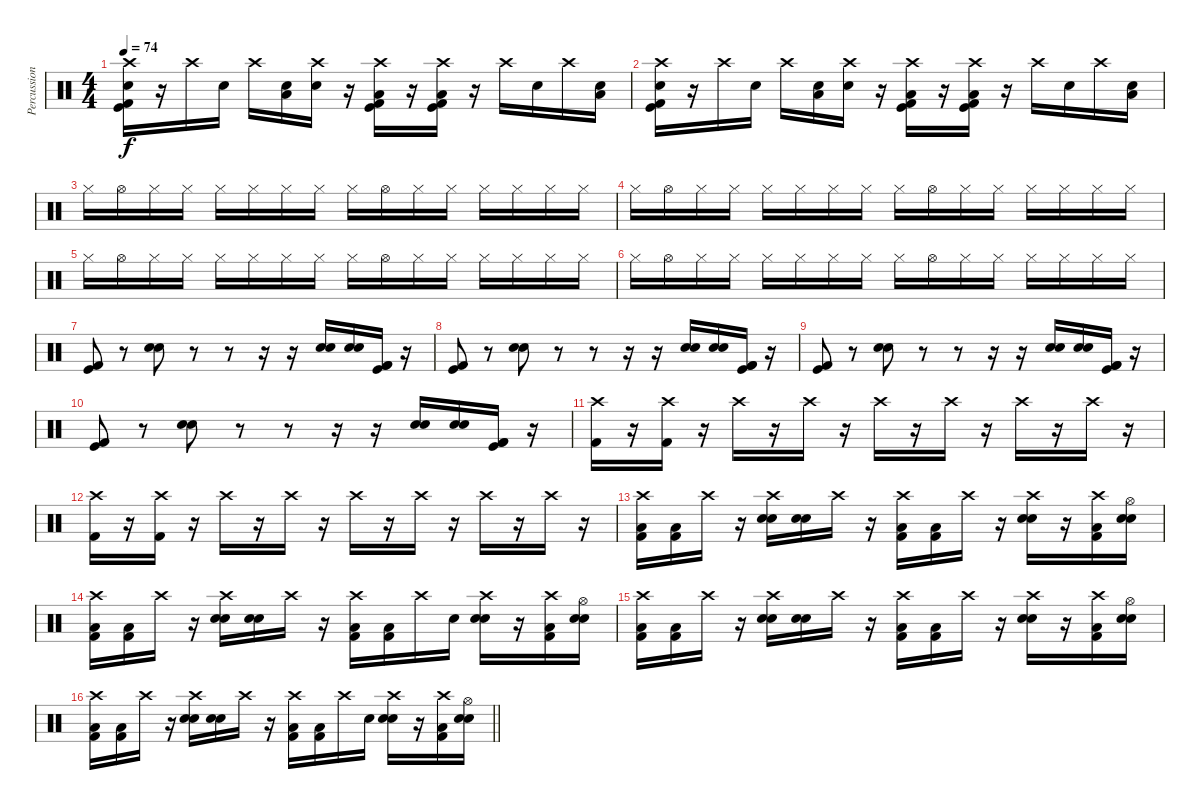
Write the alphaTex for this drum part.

\track ("Percussions" "Percussion") {instrument percussion}
\staff {score}
\articulation defaults
\ts (4 4)
\tempo 74
\clef neutral
\ks c
("Crash high (hit)" "Snare (hit) 2" "Kick (hit) 2" "Kick (hit)").16{dy f} r.16 "Crash high (hit)".16 "Electric Snare (hit)".16 "Crash high (hit)".16 ("Low Tom (hit)" "Snare (hit) 2").16 ("Crash high (hit)" "Electric Snare (hit)").16 r.16 ("Crash high (hit)" "Kick (hit)" "Low Tom (hit)" "Kick (hit) 2").16 r.16 ("Crash high (hit)" "Kick (hit)" "Low Tom (hit)" "Kick (hit) 2").16 r.16 "Crash high (hit)".16 "Electric Snare (hit)".16 "Crash high (hit)".16 ("Low Tom (hit)" "Snare (hit) 2").16 |
("Crash high (hit)" "Snare (hit) 2" "Kick (hit) 2" "Kick (hit)").16 r.16 "Crash high (hit)".16 "Electric Snare (hit)".16 "Crash high (hit)".16 ("Low Tom (hit)" "Snare (hit) 2").16 ("Crash high (hit)" "Electric Snare (hit)").16 r.16 ("Crash high (hit)" "Kick (hit)" "Low Tom (hit)" "Kick (hit) 2").16 r.16 ("Crash high (hit)" "Kick (hit)" "Low Tom (hit)" "Kick (hit) 2").16 r.16 "Crash high (hit)".16 "Electric Snare (hit)".16 "Crash high (hit)".16 ("Low Tom (hit)" "Snare (hit) 2").16 |
"Hi-Hat (closed)".16 "Hi-Hat (open)".16 "Hi-Hat (closed)".16 "Hi-Hat (closed)".16 "Hi-Hat (closed)".16 "Hi-Hat (closed)".16 "Hi-Hat (closed)".16 "Hi-Hat (closed)".16 "Hi-Hat (closed)".16 "Hi-Hat (open)".16 "Hi-Hat (closed)".16 "Hi-Hat (closed)".16 "Hi-Hat (closed)".16 "Hi-Hat (closed)".16 "Hi-Hat (closed)".16 "Hi-Hat (closed)".16 |
"Hi-Hat (closed)".16 "Hi-Hat (open)".16 "Hi-Hat (closed)".16 "Hi-Hat (closed)".16 "Hi-Hat (closed)".16 "Hi-Hat (closed)".16 "Hi-Hat (closed)".16 "Hi-Hat (closed)".16 "Hi-Hat (closed)".16 "Hi-Hat (open)".16 "Hi-Hat (closed)".16 "Hi-Hat (closed)".16 "Hi-Hat (closed)".16 "Hi-Hat (closed)".16 "Hi-Hat (closed)".16 "Hi-Hat (closed)".16 |
"Hi-Hat (closed)".16 "Hi-Hat (open)".16 "Hi-Hat (closed)".16 "Hi-Hat (closed)".16 "Hi-Hat (closed)".16 "Hi-Hat (closed)".16 "Hi-Hat (closed)".16 "Hi-Hat (closed)".16 "Hi-Hat (closed)".16 "Hi-Hat (open)".16 "Hi-Hat (closed)".16 "Hi-Hat (closed)".16 "Hi-Hat (closed)".16 "Hi-Hat (closed)".16 "Hi-Hat (closed)".16 "Hi-Hat (closed)".16 |
"Hi-Hat (closed)".16 "Hi-Hat (open)".16 "Hi-Hat (closed)".16 "Hi-Hat (closed)".16 "Hi-Hat (closed)".16 "Hi-Hat (closed)".16 "Hi-Hat (closed)".16 "Hi-Hat (closed)".16 "Hi-Hat (closed)".16 "Hi-Hat (open)".16 "Hi-Hat (closed)".16 "Hi-Hat (closed)".16 "Hi-Hat (closed)".16 "Hi-Hat (closed)".16 "Hi-Hat (closed)".16 "Hi-Hat (closed)".16 |
("Kick (hit)" "Kick (hit) 2").8 r.8 ("Snare (hit) 2" "Electric Snare (hit)").8 r.8 r.8 r.16 r.16 ("Electric Snare (hit)" "Snare (hit) 2").16 ("Electric Snare (hit)" "Snare (hit) 2").16 ("Kick (hit)" "Kick (hit) 2" "Kick (hit) 2").16 r.16 |
("Kick (hit)" "Kick (hit) 2").8 r.8 ("Snare (hit) 2" "Electric Snare (hit)").8 r.8 r.8 r.16 r.16 ("Electric Snare (hit)" "Snare (hit) 2").16 ("Electric Snare (hit)" "Snare (hit) 2").16 ("Kick (hit)" "Kick (hit) 2" "Kick (hit) 2").16 r.16 |
("Kick (hit)" "Kick (hit) 2").8 r.8 ("Snare (hit) 2" "Electric Snare (hit)").8 r.8 r.8 r.16 r.16 ("Electric Snare (hit)" "Snare (hit) 2").16 ("Electric Snare (hit)" "Snare (hit) 2").16 ("Kick (hit)" "Kick (hit) 2" "Kick (hit) 2").16 r.16 |
("Kick (hit)" "Kick (hit) 2").8 r.8 ("Snare (hit) 2" "Electric Snare (hit)").8 r.8 r.8 r.16 r.16 ("Electric Snare (hit)" "Snare (hit) 2").16 ("Electric Snare (hit)" "Snare (hit) 2").16 ("Kick (hit)" "Kick (hit) 2" "Kick (hit) 2").16 r.16 |
("Crash high (hit)" "Kick (hit) 2").16 r.16 ("Crash high (hit)" "Kick (hit) 2").16 r.16 "Crash high (hit)".16 r.16 "Crash high (hit)".16 r.16 "Crash high (hit)".16 r.16 "Crash high (hit)".16 r.16 "Crash high (hit)".16 r.16 "Crash high (hit)".16 r.16 |
("Crash high (hit)" "Kick (hit) 2").16 r.16 ("Crash high (hit)" "Kick (hit) 2").16 r.16 "Crash high (hit)".16 r.16 "Crash high (hit)".16 r.16 "Crash high (hit)".16 r.16 "Crash high (hit)".16 r.16 "Crash high (hit)".16 r.16 "Crash high (hit)".16 r.16 |
("Crash high (hit)" "Low Tom (hit)" "Kick (hit) 2").16 ("Low Tom (hit)" "Kick (hit) 2").16 "Crash high (hit)".16 r.16 ("Crash high (hit)" "Snare (hit) 2" "Electric Snare (hit)").16 ("Snare (hit) 2" "Electric Snare (hit)").16 "Crash high (hit)".16 r.16 ("Crash high (hit)" "Low Tom (hit)" "Kick (hit) 2").16 ("Low Tom (hit)" "Kick (hit) 2").16 "Crash high (hit)".16 r.16 ("Crash high (hit)" "Snare (hit) 2" "Electric Snare (hit)").16 r.16 ("Crash high (hit)" "Low Tom (hit)" "Kick (hit) 2").16 ("Hi-Hat (open)" "Electric Snare (hit)" "Snare (hit) 2").16 |
("Crash high (hit)" "Low Tom (hit)" "Kick (hit) 2").16 ("Low Tom (hit)" "Kick (hit) 2").16 "Crash high (hit)".16 r.16 ("Crash high (hit)" "Snare (hit) 2" "Electric Snare (hit)").16 ("Snare (hit) 2" "Electric Snare (hit)").16 "Crash high (hit)".16 r.16 ("Crash high (hit)" "Low Tom (hit)" "Kick (hit) 2").16 ("Low Tom (hit)" "Kick (hit) 2").16 "Crash high (hit)".16 "Electric Snare (hit)".16 ("Crash high (hit)" "Snare (hit) 2" "Electric Snare (hit)").16 r.16 ("Crash high (hit)" "Low Tom (hit)" "Kick (hit) 2").16 ("Hi-Hat (open)" "Electric Snare (hit)" "Snare (hit) 2").16 |
("Crash high (hit)" "Low Tom (hit)" "Kick (hit) 2").16 ("Low Tom (hit)" "Kick (hit) 2").16 "Crash high (hit)".16 r.16 ("Crash high (hit)" "Snare (hit) 2" "Electric Snare (hit)").16 ("Snare (hit) 2" "Electric Snare (hit)").16 "Crash high (hit)".16 r.16 ("Crash high (hit)" "Low Tom (hit)" "Kick (hit) 2").16 ("Low Tom (hit)" "Kick (hit) 2").16 "Crash high (hit)".16 r.16 ("Crash high (hit)" "Snare (hit) 2" "Electric Snare (hit)").16 r.16 ("Crash high (hit)" "Low Tom (hit)" "Kick (hit) 2").16 ("Hi-Hat (open)" "Electric Snare (hit)" "Snare (hit) 2").16 |
\barLineRight lightlight
("Crash high (hit)" "Low Tom (hit)" "Kick (hit) 2").16 ("Low Tom (hit)" "Kick (hit) 2").16 "Crash high (hit)".16 r.16 ("Crash high (hit)" "Snare (hit) 2" "Electric Snare (hit)").16 ("Snare (hit) 2" "Electric Snare (hit)").16 "Crash high (hit)".16 r.16 ("Crash high (hit)" "Low Tom (hit)" "Kick (hit) 2").16 ("Low Tom (hit)" "Kick (hit) 2").16 "Crash high (hit)".16 "Electric Snare (hit)".16 ("Crash high (hit)" "Snare (hit) 2" "Electric Snare (hit)").16 r.16 ("Crash high (hit)" "Low Tom (hit)" "Kick (hit) 2").16 ("Hi-Hat (open)" "Electric Snare (hit)" "Snare (hit) 2").16
